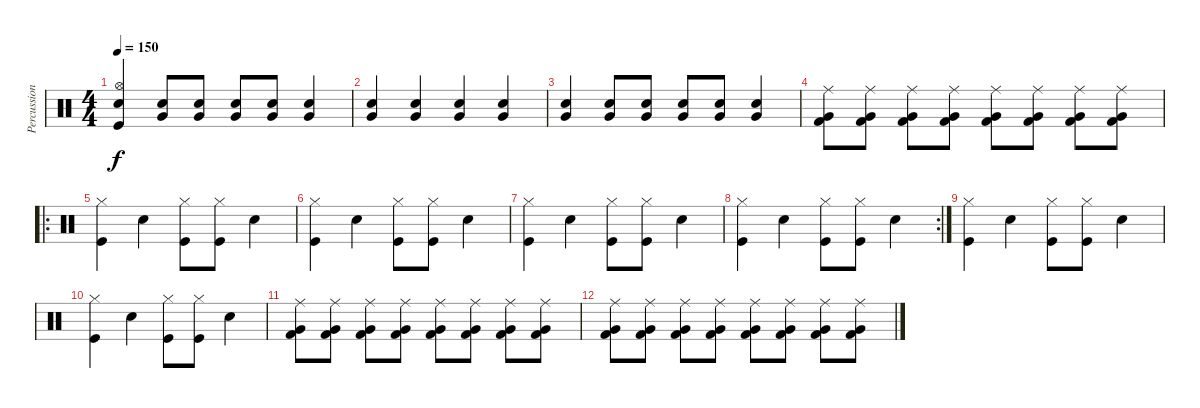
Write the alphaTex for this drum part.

\track ("Percussion" "Percussion") {instrument percussion}
\staff {score}
\articulation defaults
\ts (4 4)
\tempo 150
\clef neutral
\ks c
("Snare (hit) 2" "Hi-Hat (open)" "Kick (hit)").4{dy f} ("Snare (hit) 2" "Very Low Tom (hit)").8 ("Snare (hit) 2" "Very Low Tom (hit)").8 ("Snare (hit) 2" "Very Low Tom (hit)").8 ("Snare (hit) 2" "Very Low Tom (hit)").8 ("Snare (hit) 2" "Very Low Tom (hit)").4 |
("Snare (hit) 2" "Very Low Tom (hit)").4 ("Snare (hit) 2" "Very Low Tom (hit)").4 ("Snare (hit) 2" "Very Low Tom (hit)").4 ("Snare (hit) 2" "Very Low Tom (hit)").4 |
("Snare (hit) 2" "Very Low Tom (hit)").4 ("Snare (hit) 2" "Very Low Tom (hit)").8 ("Snare (hit) 2" "Very Low Tom (hit)").8 ("Snare (hit) 2" "Very Low Tom (hit)").8 ("Snare (hit) 2" "Very Low Tom (hit)").8 ("Snare (hit) 2" "Very Low Tom (hit)").4 |
("Very Low Tom (hit)" "Kick (hit) 2" "Ride (middle)").8 ("Very Low Tom (hit)" "Kick (hit) 2" "Ride (middle)").8 ("Very Low Tom (hit)" "Kick (hit) 2" "Ride (middle)").8 ("Very Low Tom (hit)" "Kick (hit) 2" "Ride (middle)").8 ("Very Low Tom (hit)" "Kick (hit) 2" "Ride (middle)").8 ("Very Low Tom (hit)" "Kick (hit) 2" "Ride (middle)").8 ("Very Low Tom (hit)" "Kick (hit) 2" "Ride (middle)").8 ("Very Low Tom (hit)" "Kick (hit) 2" "Ride (middle)").8 |
\ro
("Hi-Hat (closed)" "Kick (hit)").4 "Snare (hit) 2".4 ("Hi-Hat (closed)" "Kick (hit)").8 ("Hi-Hat (closed)" "Kick (hit)").8 "Snare (hit) 2".4 |
("Hi-Hat (closed)" "Kick (hit)").4 "Snare (hit) 2".4 ("Hi-Hat (closed)" "Kick (hit)").8 ("Hi-Hat (closed)" "Kick (hit)").8 "Snare (hit) 2".4 |
("Hi-Hat (closed)" "Kick (hit)").4 "Snare (hit) 2".4 ("Hi-Hat (closed)" "Kick (hit)").8 ("Hi-Hat (closed)" "Kick (hit)").8 "Snare (hit) 2".4 |
\rc 2
("Hi-Hat (closed)" "Kick (hit)").4 "Snare (hit) 2".4 ("Hi-Hat (closed)" "Kick (hit)").8 ("Hi-Hat (closed)" "Kick (hit)").8 "Snare (hit) 2".4 |
("Hi-Hat (closed)" "Kick (hit)").4 "Snare (hit) 2".4 ("Hi-Hat (closed)" "Kick (hit)").8 ("Hi-Hat (closed)" "Kick (hit)").8 "Snare (hit) 2".4 |
("Hi-Hat (closed)" "Kick (hit)").4 "Snare (hit) 2".4 ("Hi-Hat (closed)" "Kick (hit)").8 ("Hi-Hat (closed)" "Kick (hit)").8 "Snare (hit) 2".4 |
("Very Low Tom (hit)" "Kick (hit) 2" "Ride (middle)").8 ("Very Low Tom (hit)" "Kick (hit) 2" "Ride (middle)").8 ("Very Low Tom (hit)" "Kick (hit) 2" "Ride (middle)").8 ("Very Low Tom (hit)" "Kick (hit) 2" "Ride (middle)").8 ("Very Low Tom (hit)" "Kick (hit) 2" "Ride (middle)").8 ("Very Low Tom (hit)" "Kick (hit) 2" "Ride (middle)").8 ("Very Low Tom (hit)" "Kick (hit) 2" "Ride (middle)").8 ("Very Low Tom (hit)" "Kick (hit) 2" "Ride (middle)").8 |
("Very Low Tom (hit)" "Kick (hit) 2" "Ride (middle)").8 ("Very Low Tom (hit)" "Kick (hit) 2" "Ride (middle)").8 ("Very Low Tom (hit)" "Kick (hit) 2" "Ride (middle)").8 ("Very Low Tom (hit)" "Kick (hit) 2" "Ride (middle)").8 ("Very Low Tom (hit)" "Kick (hit) 2" "Ride (middle)").8 ("Very Low Tom (hit)" "Kick (hit) 2" "Ride (middle)").8 ("Very Low Tom (hit)" "Kick (hit) 2" "Ride (middle)").8 ("Very Low Tom (hit)" "Kick (hit) 2" "Ride (middle)").8
